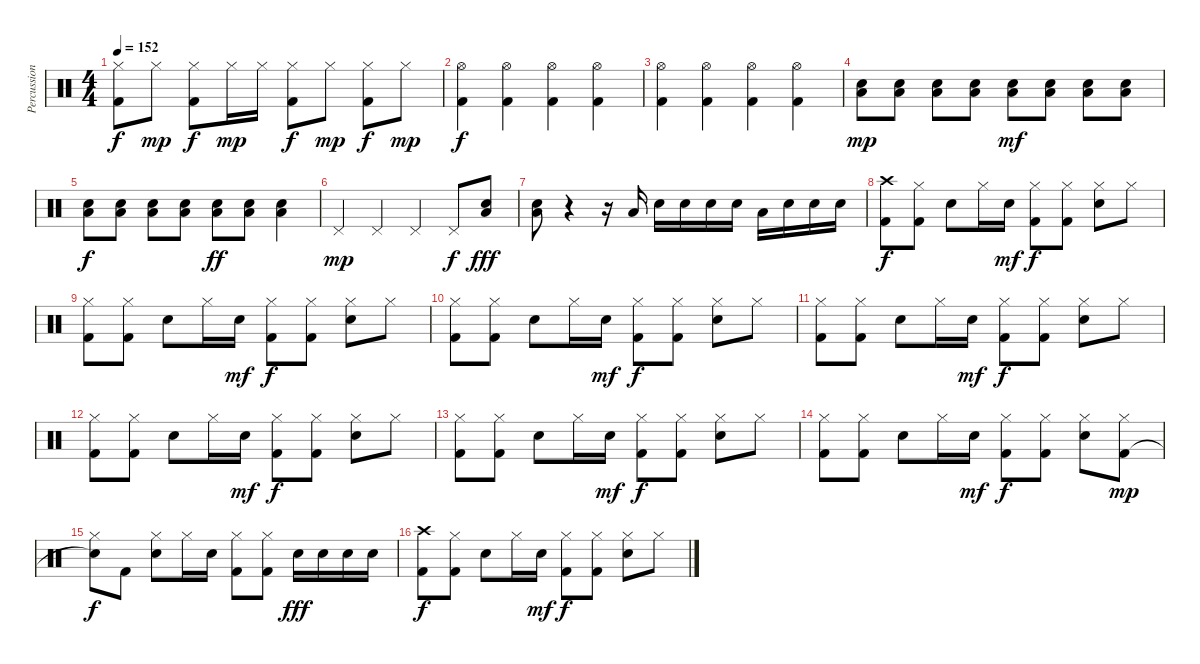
\track ("Percussion" "Percussion") {instrument percussion}
\staff {score}
\articulation defaults
\ts (4 4)
\tempo 152
\clef neutral
\ks c
("Kick (hit) 2" "Hi-Hat (closed)").8{dy f} "Hi-Hat (closed)".8{dy mp} ("Kick (hit) 2" "Hi-Hat (closed)").8{dy f} "Hi-Hat (closed)".16{dy mp} "Hi-Hat (closed)".16 ("Kick (hit) 2" "Hi-Hat (closed)").8{dy f} "Hi-Hat (closed)".8{dy mp} ("Kick (hit) 2" "Hi-Hat (closed)").8{dy f} "Hi-Hat (closed)".8{dy mp} |
("Kick (hit) 2" "Hi-Hat (open)").4{dy f} ("Kick (hit) 2" "Hi-Hat (open)").4 ("Kick (hit) 2" "Hi-Hat (open)").4 ("Kick (hit) 2" "Hi-Hat (open)").4 |
("Kick (hit) 2" "Hi-Hat (open)").4 ("Kick (hit) 2" "Hi-Hat (open)").4 ("Kick (hit) 2" "Hi-Hat (open)").4 ("Kick (hit) 2" "Hi-Hat (open)").4 |
("Low Floor Tom (hit)" "Electric Snare (hit)").8{dy mp} ("Low Floor Tom (hit)" "Electric Snare (hit)").8 ("Low Floor Tom (hit)" "Electric Snare (hit)").8 ("Low Floor Tom (hit)" "Electric Snare (hit)").8 ("Low Floor Tom (hit)" "Electric Snare (hit)").8{dy mf} ("Low Floor Tom (hit)" "Electric Snare (hit)").8 ("Low Floor Tom (hit)" "Electric Snare (hit)").8 ("Low Floor Tom (hit)" "Electric Snare (hit)").8 |
("Low Floor Tom (hit)" "Electric Snare (hit)").8{dy f} ("Low Floor Tom (hit)" "Electric Snare (hit)").8 ("Low Floor Tom (hit)" "Electric Snare (hit)").8 ("Low Floor Tom (hit)" "Electric Snare (hit)").8 ("Low Floor Tom (hit)" "Electric Snare (hit)").8{dy ff} ("Low Floor Tom (hit)" "Electric Snare (hit)").8 ("Low Floor Tom (hit)" "Electric Snare (hit)").4 |
"Pedal Hi-Hat (hit)".4{dy mp} "Pedal Hi-Hat (hit)".4 "Pedal Hi-Hat (hit)".4 "Pedal Hi-Hat (hit)".8{dy f} ("Low Floor Tom (hit)" "Electric Snare (hit)").8{dy fff} |
("Low Floor Tom (hit)" "Electric Snare (hit)").8 r.4 r.16 "Low Tom (hit)".16 "Snare (hit) 2".16 "Snare (hit) 2".16 "Snare (hit) 2".16 "Snare (hit) 2".16 "Low Floor Tom (hit)".16 "Snare (hit) 2".16 "Snare (hit) 2".16 "Snare (hit) 2".16 |
("Kick (hit) 2" "Crash high (hit)").8{dy f} ("Kick (hit) 2" "Hi-Hat (closed)").8 "Electric Snare (hit)".8 "Hi-Hat (closed)".16 "Electric Snare (hit)".16{dy mf} ("Kick (hit) 2" "Hi-Hat (closed)").8{dy f} ("Kick (hit) 2" "Hi-Hat (closed)").8 ("Electric Snare (hit)" "Hi-Hat (closed)").8 "Hi-Hat (closed)".8 |
("Kick (hit) 2" "Hi-Hat (closed)").8 ("Kick (hit) 2" "Hi-Hat (closed)").8 "Electric Snare (hit)".8 "Hi-Hat (closed)".16 "Electric Snare (hit)".16{dy mf} ("Kick (hit) 2" "Hi-Hat (closed)").8{dy f} ("Kick (hit) 2" "Hi-Hat (closed)").8 ("Electric Snare (hit)" "Hi-Hat (closed)").8 "Hi-Hat (closed)".8 |
("Kick (hit) 2" "Hi-Hat (closed)").8 ("Kick (hit) 2" "Hi-Hat (closed)").8 "Electric Snare (hit)".8 "Hi-Hat (closed)".16 "Electric Snare (hit)".16{dy mf} ("Kick (hit) 2" "Hi-Hat (closed)").8{dy f} ("Kick (hit) 2" "Hi-Hat (closed)").8 ("Electric Snare (hit)" "Hi-Hat (closed)").8 "Hi-Hat (closed)".8 |
("Kick (hit) 2" "Hi-Hat (closed)").8 ("Kick (hit) 2" "Hi-Hat (closed)").8 "Electric Snare (hit)".8 "Hi-Hat (closed)".16 "Electric Snare (hit)".16{dy mf} ("Kick (hit) 2" "Hi-Hat (closed)").8{dy f} ("Kick (hit) 2" "Hi-Hat (closed)").8 ("Electric Snare (hit)" "Hi-Hat (closed)").8 "Hi-Hat (closed)".8 |
("Kick (hit) 2" "Hi-Hat (closed)").8 ("Kick (hit) 2" "Hi-Hat (closed)").8 "Electric Snare (hit)".8 "Hi-Hat (closed)".16 "Electric Snare (hit)".16{dy mf} ("Kick (hit) 2" "Hi-Hat (closed)").8{dy f} ("Kick (hit) 2" "Hi-Hat (closed)").8 ("Electric Snare (hit)" "Hi-Hat (closed)").8 "Hi-Hat (closed)".8 |
("Kick (hit) 2" "Hi-Hat (closed)").8 ("Kick (hit) 2" "Hi-Hat (closed)").8 "Electric Snare (hit)".8 "Hi-Hat (closed)".16 "Electric Snare (hit)".16{dy mf} ("Kick (hit) 2" "Hi-Hat (closed)").8{dy f} ("Kick (hit) 2" "Hi-Hat (closed)").8 ("Electric Snare (hit)" "Hi-Hat (closed)").8 "Hi-Hat (closed)".8 |
("Kick (hit) 2" "Hi-Hat (closed)").8 ("Kick (hit) 2" "Hi-Hat (closed)").8 "Electric Snare (hit)".8 "Hi-Hat (closed)".16 "Electric Snare (hit)".16{dy mf} ("Kick (hit) 2" "Hi-Hat (closed)").8{dy f} ("Kick (hit) 2" "Hi-Hat (closed)").8 ("Electric Snare (hit)" "Hi-Hat (closed)").8 ("Kick (hit) 2" "Hi-Hat (closed)").8{dy mp} |
("Snare (hit)"{t} "Hi-Hat (closed)").8{dy f} "Kick (hit) 2".8 ("Electric Snare (hit)" "Hi-Hat (closed)").8 "Hi-Hat (closed)".16 "Electric Snare (hit)".16 ("Hi-Hat (closed)" "Kick (hit) 2").8 ("Hi-Hat (closed)" "Kick (hit) 2").8 "Snare (hit) 2".16{dy fff} "Snare (hit) 2".16 "Snare (hit) 2".16 "Snare (hit) 2".16 |
("Kick (hit) 2" "Crash high (hit)").8{dy f} ("Kick (hit) 2" "Hi-Hat (closed)").8 "Electric Snare (hit)".8 "Hi-Hat (closed)".16 "Electric Snare (hit)".16{dy mf} ("Kick (hit) 2" "Hi-Hat (closed)").8{dy f} ("Kick (hit) 2" "Hi-Hat (closed)").8 ("Electric Snare (hit)" "Hi-Hat (closed)").8 "Hi-Hat (closed)".8
